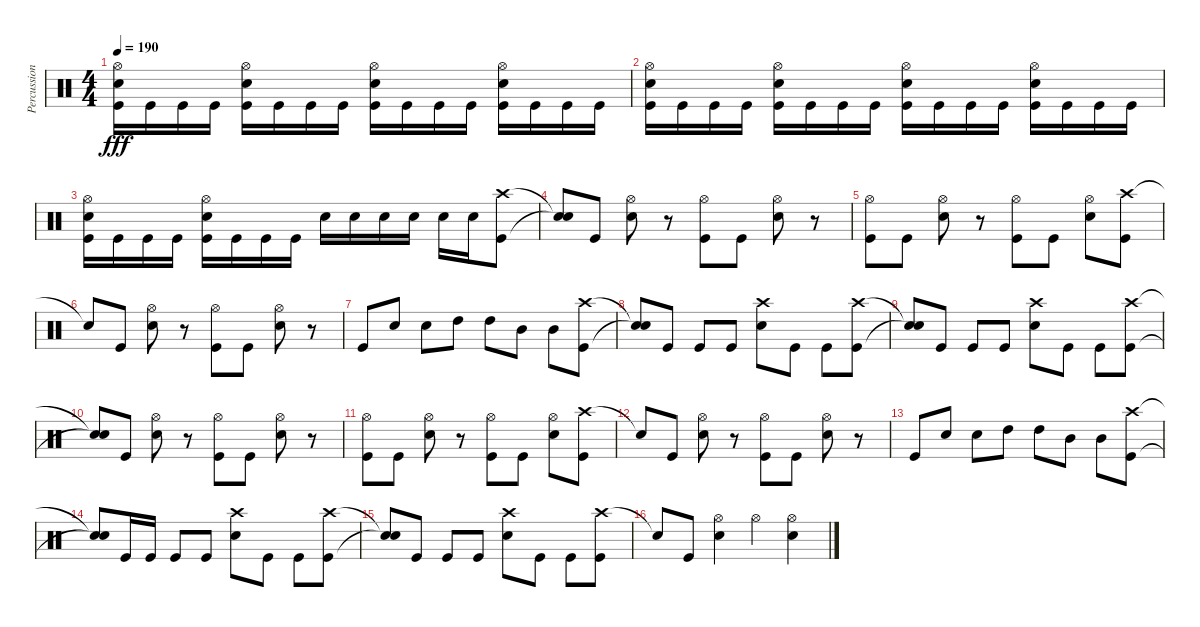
\track ("Percussion" "Percussion") {instrument percussion}
\staff {score}
\articulation defaults
\ts (4 4)
\tempo 190
\clef neutral
\ks c
("Snare (hit) 2" "Kick (hit)" "Hi-Hat (open)").16{dy fff} "Kick (hit)".16 "Kick (hit)".16 "Kick (hit)".16 ("Snare (hit) 2" "Kick (hit)" "Hi-Hat (open)").16 "Kick (hit)".16 "Kick (hit)".16 "Kick (hit)".16 ("Snare (hit) 2" "Kick (hit)" "Hi-Hat (open)").16 "Kick (hit)".16 "Kick (hit)".16 "Kick (hit)".16 ("Snare (hit) 2" "Kick (hit)" "Hi-Hat (open)").16 "Kick (hit)".16 "Kick (hit)".16 "Kick (hit)".16 |
("Snare (hit) 2" "Kick (hit)" "Hi-Hat (open)").16 "Kick (hit)".16 "Kick (hit)".16 "Kick (hit)".16 ("Snare (hit) 2" "Kick (hit)" "Hi-Hat (open)").16 "Kick (hit)".16 "Kick (hit)".16 "Kick (hit)".16 ("Snare (hit) 2" "Kick (hit)" "Hi-Hat (open)").16 "Kick (hit)".16 "Kick (hit)".16 "Kick (hit)".16 ("Snare (hit) 2" "Kick (hit)" "Hi-Hat (open)").16 "Kick (hit)".16 "Kick (hit)".16 "Kick (hit)".16 |
("Snare (hit) 2" "Kick (hit)" "Hi-Hat (open)").16 "Kick (hit)".16 "Kick (hit)".16 "Kick (hit)".16 ("Snare (hit) 2" "Kick (hit)" "Hi-Hat (open)").16 "Kick (hit)".16 "Kick (hit)".16 "Kick (hit)".16 "Snare (hit) 2".16 "Snare (hit) 2".16 "Snare (hit) 2".16 "Snare (hit) 2".16 "Snare (hit) 2".16 "Snare (hit) 2".16 ("Crash high (hit)" "Kick (hit)").8 |
("Snare (hit)"{t} "Snare (hit)"{t}).8 "Kick (hit)".8 ("Hi-Hat (open)" "Snare (hit) 2").8 r.8 ("Hi-Hat (open)" "Kick (hit)").8 "Kick (hit)".8 ("Hi-Hat (open)" "Snare (hit) 2").8 r.8 |
("Hi-Hat (open)" "Kick (hit)").8 "Kick (hit)".8 ("Hi-Hat (open)" "Snare (hit) 2").8 r.8 ("Hi-Hat (open)" "Kick (hit)").8 "Kick (hit)".8 ("Hi-Hat (open)" "Snare (hit) 2").8 ("Crash high (hit)" "Kick (hit)").8 |
"Snare (hit)"{t}.8 "Kick (hit)".8 ("Hi-Hat (open)" "Snare (hit) 2").8 r.8 ("Hi-Hat (open)" "Kick (hit)").8 "Kick (hit)".8 ("Hi-Hat (open)" "Snare (hit) 2").8 r.8 |
"Kick (hit)".8 "Snare (hit) 2".8 "Snare (hit) 2".8 "High Tom (hit)".8 "High Tom (hit)".8 "Mid Tom (hit)".8 "Mid Tom (hit)".8 ("Crash high (hit)" "Kick (hit)").8 |
("Snare (hit)"{t} "Snare (hit)"{t}).8 "Kick (hit)".8 "Kick (hit)".8 "Kick (hit)".8 ("Crash high (hit)" "Snare (hit) 2").8 "Kick (hit)".8 "Kick (hit)".8 ("Crash high (hit)" "Kick (hit)").8 |
("Snare (hit)"{t} "Snare (hit)"{t}).8 "Kick (hit)".8 "Kick (hit)".8 "Kick (hit)".8 ("Crash high (hit)" "Snare (hit) 2").8 "Kick (hit)".8 "Kick (hit)".8 ("Crash high (hit)" "Kick (hit)").8 |
("Snare (hit)"{t} "Snare (hit)"{t}).8 "Kick (hit)".8 ("Hi-Hat (open)" "Snare (hit) 2").8 r.8 ("Hi-Hat (open)" "Kick (hit)").8 "Kick (hit)".8 ("Hi-Hat (open)" "Snare (hit) 2").8 r.8 |
("Hi-Hat (open)" "Kick (hit)").8 "Kick (hit)".8 ("Hi-Hat (open)" "Snare (hit) 2").8 r.8 ("Hi-Hat (open)" "Kick (hit)").8 "Kick (hit)".8 ("Hi-Hat (open)" "Snare (hit) 2").8 ("Crash high (hit)" "Kick (hit)").8 |
"Snare (hit)"{t}.8 "Kick (hit)".8 ("Hi-Hat (open)" "Snare (hit) 2").8 r.8 ("Hi-Hat (open)" "Kick (hit)").8 "Kick (hit)".8 ("Hi-Hat (open)" "Snare (hit) 2").8 r.8 |
"Kick (hit)".8 "Snare (hit) 2".8 "Snare (hit) 2".8 "High Tom (hit)".8 "High Tom (hit)".8 "Mid Tom (hit)".8 "Mid Tom (hit)".8 ("Crash high (hit)" "Kick (hit)").8 |
("Snare (hit)"{t} "Snare (hit)"{t}).8 "Kick (hit)".16 "Kick (hit)".16 "Kick (hit)".8 "Kick (hit)".8 ("Crash high (hit)" "Snare (hit) 2").8 "Kick (hit)".8 "Kick (hit)".8 ("Crash high (hit)" "Kick (hit)").8 |
("Snare (hit)"{t} "Snare (hit)"{t}).8 "Kick (hit)".8 "Kick (hit)".8 "Kick (hit)".8 ("Crash high (hit)" "Snare (hit) 2").8 "Kick (hit)".8 "Kick (hit)".8 ("Crash high (hit)" "Kick (hit)").8 |
"Snare (hit)"{t}.8 "Kick (hit)".8 ("Hi-Hat (open)" "Snare (hit) 2").4 "Hi-Hat (open)".4 ("Hi-Hat (open)" "Snare (hit) 2").4
